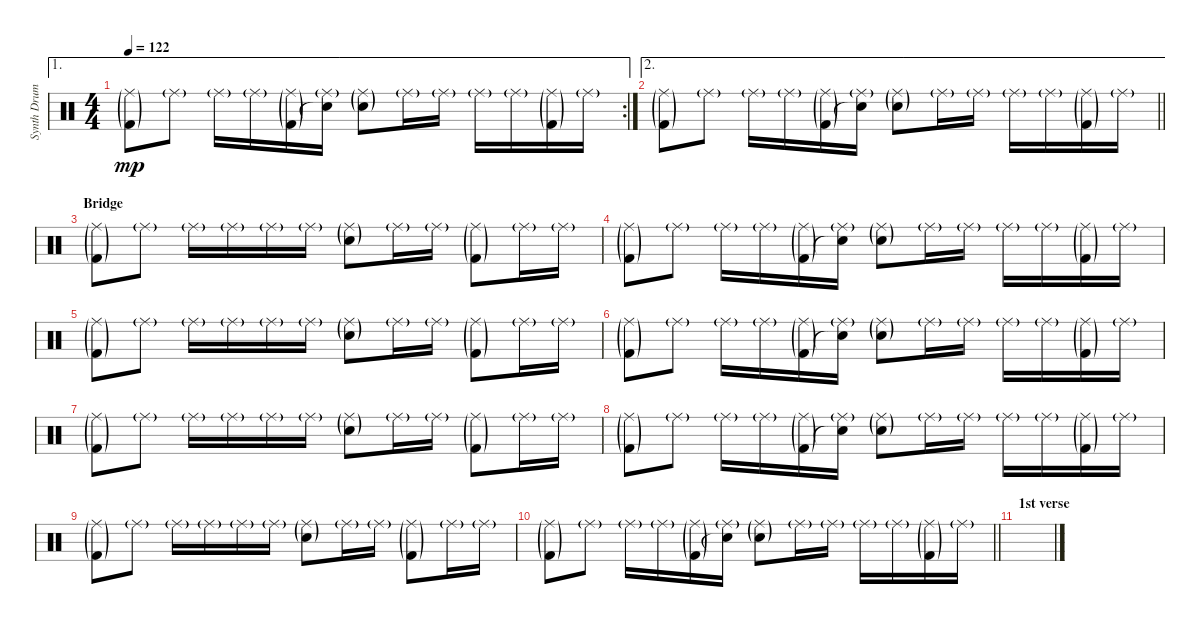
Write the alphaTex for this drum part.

\track ("Synth Drums" "Synth Drum") {instrument percussion}
\staff {score}
\articulation defaults
\ae 1
\rc 2
\ts (4 4)
\tempo 122
\clef neutral
\ks c
("Ride (middle)"{g} "Kick (hit) 2"{g}).8{dy mp} "Ride (middle)"{g}.8 "Ride (middle)"{g}.16 "Ride (middle)"{g}.16 ("Ride (middle)"{g} "Kick (hit) 2"{g}).16 ("Ride (middle)"{g} "Snare (hit)"{t}).16 ("Snare (hit) 2"{g} "Ride (middle)"{g}).8 "Ride (middle)"{g}.16 "Ride (middle)"{g}.16 "Ride (middle)"{g}.16 "Ride (middle)"{g}.16 ("Ride (middle)"{g} "Kick (hit) 2"{g}).16 "Ride (middle)"{g}.16 |
\ae 2
\barLineRight lightlight
("Ride (middle)"{g} "Kick (hit) 2"{g}).8 "Ride (middle)"{g}.8 "Ride (middle)"{g}.16 "Ride (middle)"{g}.16 ("Ride (middle)"{g} "Kick (hit) 2"{g}).16 ("Ride (middle)"{g} "Snare (hit)"{t}).16 ("Snare (hit) 2"{g} "Ride (middle)"{g}).8 "Ride (middle)"{g}.16 "Ride (middle)"{g}.16 "Ride (middle)"{g}.16 "Ride (middle)"{g}.16 ("Ride (middle)"{g} "Kick (hit) 2"{g}).16 "Ride (middle)"{g}.16 |
\section ("" "Bridge")
("Ride (middle)"{g} "Kick (hit) 2"{g}).8 "Ride (middle)"{g}.8 "Ride (middle)"{g}.16 "Ride (middle)"{g}.16 "Ride (middle)"{g}.16 "Ride (middle)"{g}.16 ("Snare (hit) 2"{g} "Ride (middle)"{g}).8 "Ride (middle)"{g}.16 "Ride (middle)"{g}.16 ("Ride (middle)"{g} "Kick (hit) 2"{g}).8 "Ride (middle)"{g}.16 "Ride (middle)"{g}.16 |
("Ride (middle)"{g} "Kick (hit) 2"{g}).8 "Ride (middle)"{g}.8 "Ride (middle)"{g}.16 "Ride (middle)"{g}.16 ("Ride (middle)"{g} "Kick (hit) 2"{g}).16 ("Ride (middle)"{g} "Snare (hit)"{t}).16 ("Snare (hit) 2"{g} "Ride (middle)"{g}).8 "Ride (middle)"{g}.16 "Ride (middle)"{g}.16 "Ride (middle)"{g}.16 "Ride (middle)"{g}.16 ("Ride (middle)"{g} "Kick (hit) 2"{g}).16 "Ride (middle)"{g}.16 |
("Ride (middle)"{g} "Kick (hit) 2"{g}).8 "Ride (middle)"{g}.8 "Ride (middle)"{g}.16 "Ride (middle)"{g}.16 "Ride (middle)"{g}.16 "Ride (middle)"{g}.16 ("Snare (hit) 2"{g} "Ride (middle)"{g}).8 "Ride (middle)"{g}.16 "Ride (middle)"{g}.16 ("Ride (middle)"{g} "Kick (hit) 2"{g}).8 "Ride (middle)"{g}.16 "Ride (middle)"{g}.16 |
("Ride (middle)"{g} "Kick (hit) 2"{g}).8 "Ride (middle)"{g}.8 "Ride (middle)"{g}.16 "Ride (middle)"{g}.16 ("Ride (middle)"{g} "Kick (hit) 2"{g}).16 ("Ride (middle)"{g} "Snare (hit)"{t}).16 ("Snare (hit) 2"{g} "Ride (middle)"{g}).8 "Ride (middle)"{g}.16 "Ride (middle)"{g}.16 "Ride (middle)"{g}.16 "Ride (middle)"{g}.16 ("Ride (middle)"{g} "Kick (hit) 2"{g}).16 "Ride (middle)"{g}.16 |
("Ride (middle)"{g} "Kick (hit) 2"{g}).8 "Ride (middle)"{g}.8 "Ride (middle)"{g}.16 "Ride (middle)"{g}.16 "Ride (middle)"{g}.16 "Ride (middle)"{g}.16 ("Snare (hit) 2"{g} "Ride (middle)"{g}).8 "Ride (middle)"{g}.16 "Ride (middle)"{g}.16 ("Ride (middle)"{g} "Kick (hit) 2"{g}).8 "Ride (middle)"{g}.16 "Ride (middle)"{g}.16 |
("Ride (middle)"{g} "Kick (hit) 2"{g}).8 "Ride (middle)"{g}.8 "Ride (middle)"{g}.16 "Ride (middle)"{g}.16 ("Ride (middle)"{g} "Kick (hit) 2"{g}).16 ("Ride (middle)"{g} "Snare (hit)"{t}).16 ("Snare (hit) 2"{g} "Ride (middle)"{g}).8 "Ride (middle)"{g}.16 "Ride (middle)"{g}.16 "Ride (middle)"{g}.16 "Ride (middle)"{g}.16 ("Ride (middle)"{g} "Kick (hit) 2"{g}).16 "Ride (middle)"{g}.16 |
("Ride (middle)"{g} "Kick (hit) 2"{g}).8 "Ride (middle)"{g}.8 "Ride (middle)"{g}.16 "Ride (middle)"{g}.16 "Ride (middle)"{g}.16 "Ride (middle)"{g}.16 ("Snare (hit) 2"{g} "Ride (middle)"{g}).8 "Ride (middle)"{g}.16 "Ride (middle)"{g}.16 ("Ride (middle)"{g} "Kick (hit) 2"{g}).8 "Ride (middle)"{g}.16 "Ride (middle)"{g}.16 |
\barLineRight lightlight
("Ride (middle)"{g} "Kick (hit) 2"{g}).8 "Ride (middle)"{g}.8 "Ride (middle)"{g}.16 "Ride (middle)"{g}.16 ("Ride (middle)"{g} "Kick (hit) 2"{g}).16 ("Ride (middle)"{g} "Snare (hit)"{t}).16 ("Snare (hit) 2"{g} "Ride (middle)"{g}).8 "Ride (middle)"{g}.16 "Ride (middle)"{g}.16 "Ride (middle)"{g}.16 "Ride (middle)"{g}.16 ("Ride (middle)"{g} "Kick (hit) 2"{g}).16 "Ride (middle)"{g}.16 |
\section ("" "1st verse")
